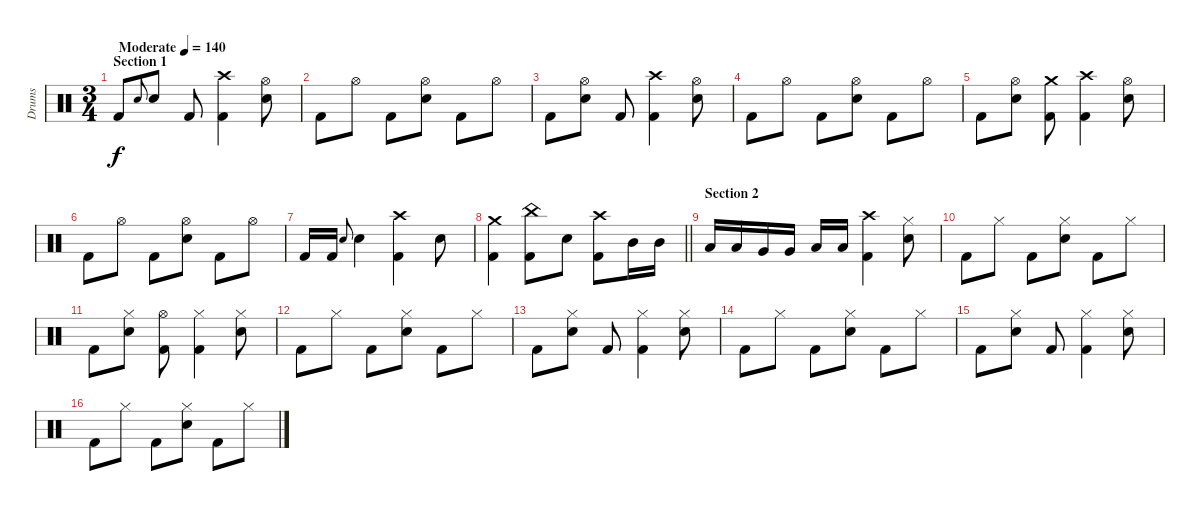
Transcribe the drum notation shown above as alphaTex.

\track ("Drums" "Drums") {instrument percussion}
\staff {score}
\articulation defaults
\ts (3 4)
\section ("" "Section 1")
\tempo (140 "Moderate")
\clef neutral
\ks c "Kick (hit) 2".8{dy f} "Snare (hit) 2"{h}.8{gr onbeat} "Snare (hit) 2".8 "Kick (hit) 2".8
("Crash high (hit)" "Kick (hit) 2").4 ("Hi-Hat (open)" "Snare (hit) 2").8 |
"Kick (hit) 2".8 "Hi-Hat (open)".8 "Kick (hit) 2".8 ("Hi-Hat (open)" "Snare (hit) 2").8 "Kick (hit) 2".8 "Hi-Hat (open)".8 |
"Kick (hit) 2".8 ("Hi-Hat (open)" "Snare (hit) 2").8 "Kick (hit) 2".8 ("Crash high (hit)" "Kick (hit) 2").4 ("Hi-Hat (open)" "Snare (hit) 2").8 |
"Kick (hit) 2".8 "Hi-Hat (open)".8 "Kick (hit) 2".8 ("Hi-Hat (open)" "Snare (hit) 2").8 "Kick (hit) 2".8 "Hi-Hat (open)".8 |
"Kick (hit) 2".8 ("Hi-Hat (open)" "Snare (hit) 2").8 ("Crash medium (hit)" "Kick (hit) 2").8 ("Crash high (hit)" "Kick (hit) 2").4 ("Hi-Hat (open)" "Snare (hit) 2").8 |
"Kick (hit) 2".8 "Hi-Hat (open)".8 "Kick (hit) 2".8 ("Hi-Hat (open)" "Snare (hit) 2").8 "Kick (hit) 2".8 "Hi-Hat (open)".8 |
"Kick (hit) 2".16 "Kick (hit) 2".16 "Snare (hit) 2"{h}.8{gr onbeat} "Snare (hit) 2".4 ("Crash high (hit)" "Kick (hit) 2").4 "Snare (hit) 2".8 |
\barLineRight lightlight
("Crash medium (hit)" "Kick (hit) 2").4 ("China (hit)" "Kick (hit) 2").8 "Snare (hit) 2".8 ("Crash high (hit)" "Kick (hit) 2").8 "Mid Tom (hit)".16 "Mid Tom (hit)".16 |
\section ("" "Section 2")
"Low Tom (hit)".16 "Low Tom (hit)".16 "Very Low Tom (hit)".16 "Very Low Tom (hit)".16 "Low Floor Tom (hit)".16 "Low Floor Tom (hit)".16 ("Crash high (hit)" "Kick (hit) 2").4 ("Hi-Hat (closed)" "Snare (hit) 2").8 |
"Kick (hit) 2".8 "Hi-Hat (closed)".8 "Kick (hit) 2".8 ("Hi-Hat (closed)" "Snare (hit) 2").8 "Kick (hit) 2".8 "Hi-Hat (closed)".8 |
"Kick (hit) 2".8 ("Hi-Hat (closed)" "Snare (hit) 2").8 ("Hi-Hat (open)" "Kick (hit) 2").8 ("Hi-Hat (closed)" "Kick (hit) 2").4 ("Hi-Hat (closed)" "Snare (hit) 2").8 |
"Kick (hit) 2".8 "Hi-Hat (closed)".8 "Kick (hit) 2".8 ("Hi-Hat (closed)" "Snare (hit) 2").8 "Kick (hit) 2".8 "Hi-Hat (closed)".8 |
"Kick (hit) 2".8 ("Hi-Hat (closed)" "Snare (hit) 2").8 "Kick (hit) 2".8 ("Hi-Hat (closed)" "Kick (hit) 2").4 ("Hi-Hat (closed)" "Snare (hit) 2").8 |
"Kick (hit) 2".8 "Hi-Hat (closed)".8 "Kick (hit) 2".8 ("Hi-Hat (closed)" "Snare (hit) 2").8 "Kick (hit) 2".8 "Hi-Hat (closed)".8 |
"Kick (hit) 2".8 ("Hi-Hat (closed)" "Snare (hit) 2").8 "Kick (hit) 2".8 ("Hi-Hat (closed)" "Kick (hit) 2").4 ("Hi-Hat (closed)" "Snare (hit) 2").8 |
"Kick (hit) 2".8 "Hi-Hat (closed)".8 "Kick (hit) 2".8 ("Hi-Hat (closed)" "Snare (hit) 2").8 "Kick (hit) 2".8 "Hi-Hat (closed)".8
